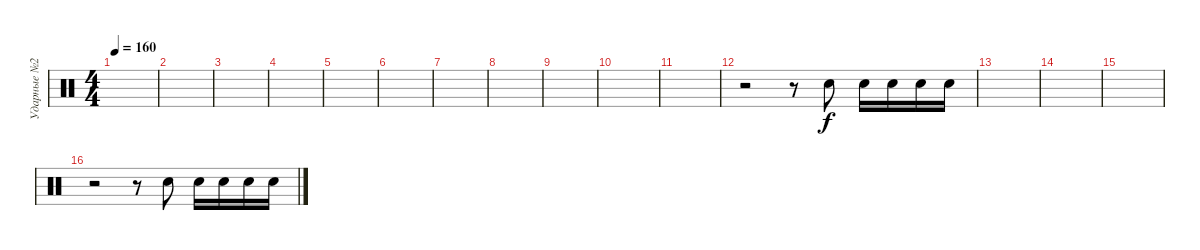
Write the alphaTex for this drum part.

\track ("Ударные №2" "Ударные №2") {instrument percussion}
\staff {score}
\articulation defaults
\ts (4 4)
\tempo 160
\clef neutral
\ks c
|
|
|
|
|
|
|
|
|
|
|
r.2 r.8 "Snare (hit) 2".8 "Snare (hit) 2".16 "Snare (hit) 2".16 "Snare (hit) 2".16 "Snare (hit) 2".16 |
|
|
|
r.2 r.8 "Snare (hit) 2".8 "Snare (hit) 2".16 "Snare (hit) 2".16 "Snare (hit) 2".16 "Snare (hit) 2".16
